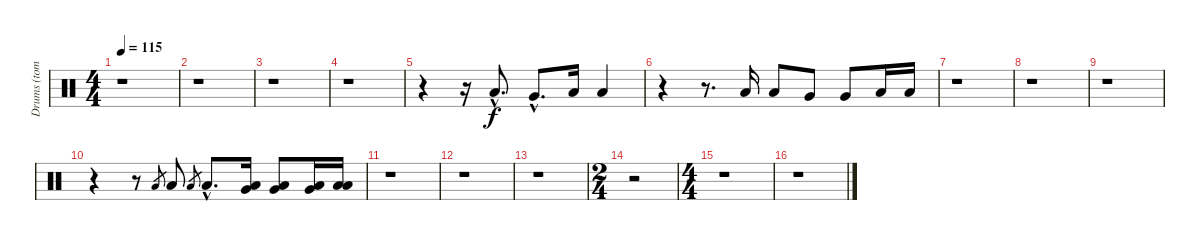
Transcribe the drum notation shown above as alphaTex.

\track ("Drums (toms)" "Drums (tom") {instrument percussion}
\staff {score}
\articulation defaults
\ts (4 4)
\tempo 115
\clef neutral
\ks c
r.1{dy f} |
r.1 |
r.1 |
r.1 |
r.4 r.16 "Low Tom (hit)"{hac}.8{d} "Very Low Tom (hit)"{hac}.8{d} "Low Floor Tom (hit)".16 "Low Floor Tom (hit)".4 |
r.4 r.8{d} "Low Tom (hit)".16 "Low Tom (hit)".8 "Very Low Tom (hit)".8 "Very Low Tom (hit)".8 "Low Floor Tom (hit)".16 "Low Floor Tom (hit)".16 |
r.1 |
r.1 |
r.1 |
r.4 r.8 "Low Tom (hit)".8{gr} "Low Tom (hit)".8 "Low Tom (hit)".8{gr} "Low Tom (hit)"{hac}.8{d} ("Low Tom (hit)" "Very Low Tom (hit)").16 ("Low Tom (hit)" "Very Low Tom (hit)").8 ("Very Low Tom (hit)" "Low Floor Tom (hit)").16 ("Low Floor Tom (hit)" "Low Floor Tom (hit)").16 |
r.1 |
r.1 |
r.1 |
\ts (2 4)
r.2 |
\ts (4 4)
r.1 |
r.1
